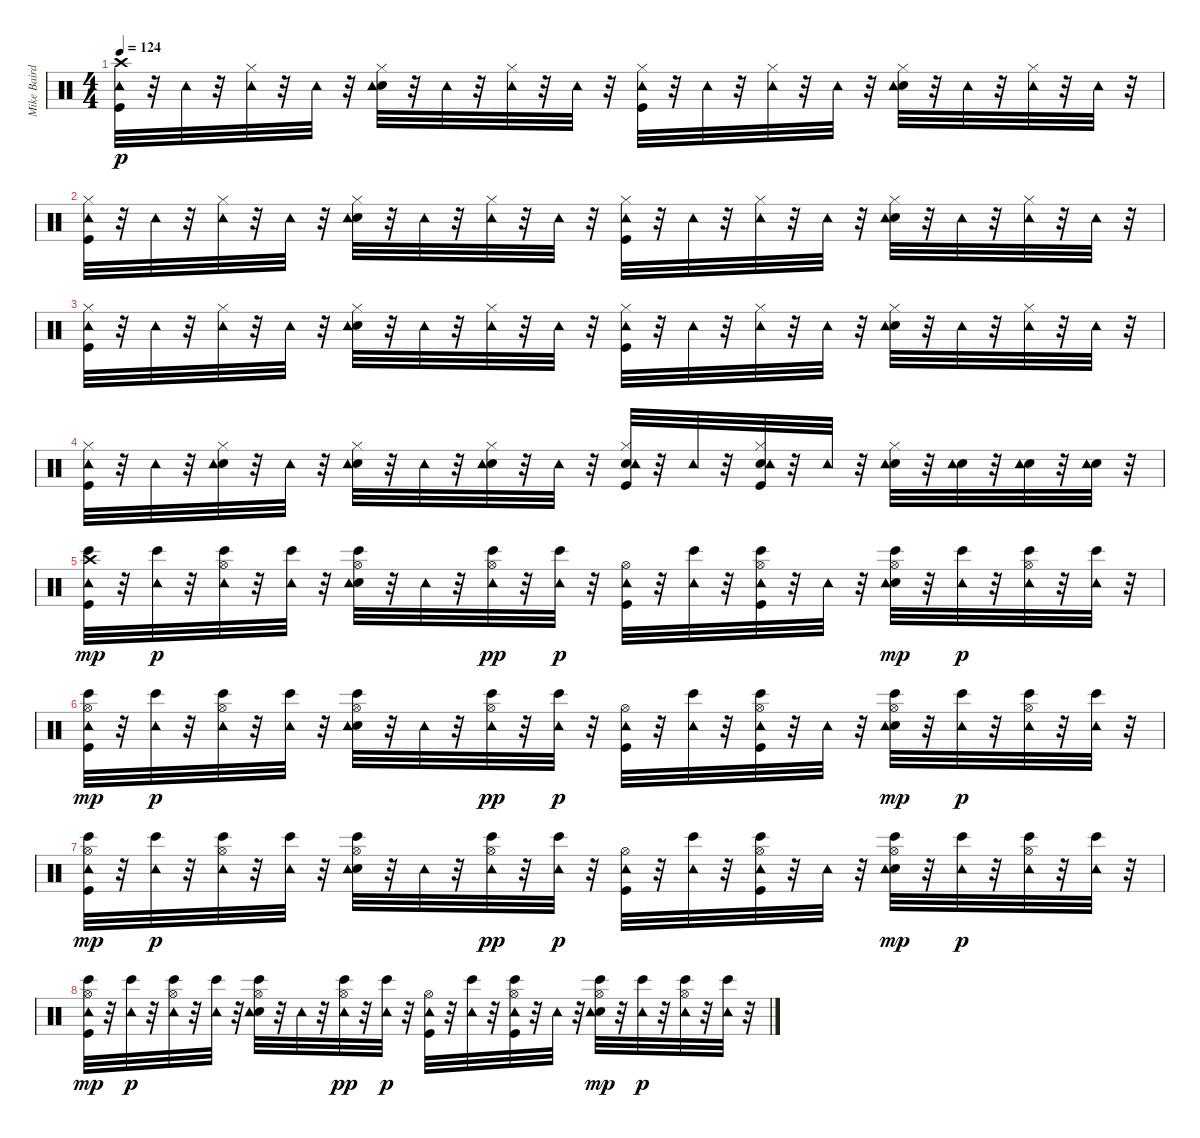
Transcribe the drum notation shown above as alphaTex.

\track ("Mike Baird [drums]" "Mike Baird") {instrument percussion}
\staff {score}
\articulation defaults
\ts (4 4)
\tempo 124
\clef neutral
\ks c
("Kick (hit)" "Crash high (hit)" "Tambourine (hit)").32{dy p} r.32 "Tambourine (hit)".32 r.32 ("Hi-Hat (closed)" "Tambourine (hit)").32 r.32 "Tambourine (hit)".32 r.32 ("Electric Snare (hit)" "Hi-Hat (closed)" "Tambourine (hit)").32 r.32 "Tambourine (hit)".32 r.32 ("Hi-Hat (closed)" "Tambourine (hit)").32 r.32 "Tambourine (hit)".32 r.32 ("Kick (hit)" "Hi-Hat (closed)" "Tambourine (hit)").32 r.32 "Tambourine (hit)".32 r.32 ("Hi-Hat (closed)" "Tambourine (hit)").32 r.32 "Tambourine (hit)".32 r.32 ("Electric Snare (hit)" "Hi-Hat (closed)" "Tambourine (hit)").32 r.32 "Tambourine (hit)".32 r.32 ("Hi-Hat (closed)" "Tambourine (hit)").32 r.32 "Tambourine (hit)".32 r.32 |
("Kick (hit)" "Hi-Hat (closed)" "Tambourine (hit)").32 r.32 "Tambourine (hit)".32 r.32 ("Hi-Hat (closed)" "Tambourine (hit)").32 r.32 "Tambourine (hit)".32 r.32 ("Electric Snare (hit)" "Hi-Hat (closed)" "Tambourine (hit)").32 r.32 "Tambourine (hit)".32 r.32 ("Hi-Hat (closed)" "Tambourine (hit)").32 r.32 "Tambourine (hit)".32 r.32 ("Kick (hit)" "Hi-Hat (closed)" "Tambourine (hit)").32 r.32 "Tambourine (hit)".32 r.32 ("Hi-Hat (closed)" "Tambourine (hit)").32 r.32 "Tambourine (hit)".32 r.32 ("Electric Snare (hit)" "Hi-Hat (closed)" "Tambourine (hit)").32 r.32 "Tambourine (hit)".32 r.32 ("Hi-Hat (closed)" "Tambourine (hit)").32 r.32 "Tambourine (hit)".32 r.32 |
("Kick (hit)" "Hi-Hat (closed)" "Tambourine (hit)").32 r.32 "Tambourine (hit)".32 r.32 ("Hi-Hat (closed)" "Tambourine (hit)").32 r.32 "Tambourine (hit)".32 r.32 ("Electric Snare (hit)" "Hi-Hat (closed)" "Tambourine (hit)").32 r.32 "Tambourine (hit)".32 r.32 ("Hi-Hat (closed)" "Tambourine (hit)").32 r.32 "Tambourine (hit)".32 r.32 ("Kick (hit)" "Hi-Hat (closed)" "Tambourine (hit)").32 r.32 "Tambourine (hit)".32 r.32 ("Hi-Hat (closed)" "Tambourine (hit)").32 r.32 "Tambourine (hit)".32 r.32 ("Electric Snare (hit)" "Hi-Hat (closed)" "Tambourine (hit)").32 r.32 "Tambourine (hit)".32 r.32 ("Hi-Hat (closed)" "Tambourine (hit)").32 r.32 "Tambourine (hit)".32 r.32 |
("Kick (hit)" "Hi-Hat (closed)" "Tambourine (hit)").32 r.32 "Tambourine (hit)".32 r.32 ("Electric Snare (hit)" "Hi-Hat (closed)" "Tambourine (hit)").32 r.32 "Tambourine (hit)".32 r.32 ("Electric Snare (hit)" "Hi-Hat (closed)" "Tambourine (hit)").32 r.32 "Tambourine (hit)".32 r.32 ("Electric Snare (hit)" "Hi-Hat (closed)" "Tambourine (hit)").32 r.32 "Tambourine (hit)".32 r.32 ("Kick (hit)" "Electric Snare (hit)" "Hi-Hat (closed)" "Tambourine (hit)").32 r.32 "Tambourine (hit)".32 r.32 ("Kick (hit)" "Electric Snare (hit)" "Hi-Hat (closed)" "Tambourine (hit)").32 r.32 "Tambourine (hit)".32 r.32 ("Electric Snare (hit)" "Hi-Hat (closed)" "Tambourine (hit)").32 r.32 ("Electric Snare (hit)" "Tambourine (hit)").32 r.32 ("Electric Snare (hit)" "Tambourine (hit)").32 r.32 ("Electric Snare (hit)" "Tambourine (hit)").32 r.32 |
("Bongo High (hit)" "Kick (hit)" "Crash high (hit)" "Tambourine (hit)").32{dy mp} r.32 ("Tambourine (hit)" "Bongo High (hit)").32{dy p} r.32 ("Hi-Hat (open)" "Tambourine (hit)" "Bongo High (hit)").32 r.32 ("Tambourine (hit)" "Bongo High (hit)").32 r.32 ("Electric Snare (hit)" "Hi-Hat (open)" "Bongo High (hit)" "Tambourine (hit)").32 r.32 "Tambourine (hit)".32 r.32 ("Hi-Hat (open)" "Tambourine (hit)" "Bongo High (hit)").32{dy pp} r.32 ("Bongo High (hit)" "Tambourine (hit)").32{dy p} r.32 ("Kick (hit)" "Hi-Hat (open)" "Tambourine (hit)").32 r.32 ("Bongo High (hit)" "Tambourine (hit)").32 r.32 ("Bongo High (hit)" "Kick (hit)" "Hi-Hat (open)" "Tambourine (hit)").32 r.32 "Tambourine (hit)".32 r.32 ("Bongo High (hit)" "Electric Snare (hit)" "Hi-Hat (open)" "Tambourine (hit)").32{dy mp} r.32 ("Tambourine (hit)" "Bongo High (hit)").32{dy p} r.32 ("Bongo High (hit)" "Hi-Hat (open)" "Tambourine (hit)").32 r.32 ("Tambourine (hit)" "Bongo High (hit)").32 r.32 |
("Bongo High (hit)" "Kick (hit)" "Hi-Hat (open)" "Tambourine (hit)").32{dy mp} r.32 ("Tambourine (hit)" "Bongo High (hit)").32{dy p} r.32 ("Hi-Hat (open)" "Tambourine (hit)" "Bongo High (hit)").32 r.32 ("Tambourine (hit)" "Bongo High (hit)").32 r.32 ("Electric Snare (hit)" "Hi-Hat (open)" "Bongo High (hit)" "Tambourine (hit)").32 r.32 "Tambourine (hit)".32 r.32 ("Hi-Hat (open)" "Tambourine (hit)" "Bongo High (hit)").32{dy pp} r.32 ("Bongo High (hit)" "Tambourine (hit)").32{dy p} r.32 ("Kick (hit)" "Hi-Hat (open)" "Tambourine (hit)").32 r.32 ("Bongo High (hit)" "Tambourine (hit)").32 r.32 ("Bongo High (hit)" "Kick (hit)" "Hi-Hat (open)" "Tambourine (hit)").32 r.32 "Tambourine (hit)".32 r.32 ("Bongo High (hit)" "Electric Snare (hit)" "Hi-Hat (open)" "Tambourine (hit)").32{dy mp} r.32 ("Tambourine (hit)" "Bongo High (hit)").32{dy p} r.32 ("Bongo High (hit)" "Hi-Hat (open)" "Tambourine (hit)").32 r.32 ("Tambourine (hit)" "Bongo High (hit)").32 r.32 |
("Bongo High (hit)" "Kick (hit)" "Hi-Hat (open)" "Tambourine (hit)").32{dy mp} r.32 ("Tambourine (hit)" "Bongo High (hit)").32{dy p} r.32 ("Hi-Hat (open)" "Tambourine (hit)" "Bongo High (hit)").32 r.32 ("Tambourine (hit)" "Bongo High (hit)").32 r.32 ("Electric Snare (hit)" "Hi-Hat (open)" "Bongo High (hit)" "Tambourine (hit)").32 r.32 "Tambourine (hit)".32 r.32 ("Hi-Hat (open)" "Tambourine (hit)" "Bongo High (hit)").32{dy pp} r.32 ("Bongo High (hit)" "Tambourine (hit)").32{dy p} r.32 ("Kick (hit)" "Hi-Hat (open)" "Tambourine (hit)").32 r.32 ("Bongo High (hit)" "Tambourine (hit)").32 r.32 ("Bongo High (hit)" "Kick (hit)" "Hi-Hat (open)" "Tambourine (hit)").32 r.32 "Tambourine (hit)".32 r.32 ("Bongo High (hit)" "Electric Snare (hit)" "Hi-Hat (open)" "Tambourine (hit)").32{dy mp} r.32 ("Tambourine (hit)" "Bongo High (hit)").32{dy p} r.32 ("Bongo High (hit)" "Hi-Hat (open)" "Tambourine (hit)").32 r.32 ("Tambourine (hit)" "Bongo High (hit)").32 r.32 |
("Bongo High (hit)" "Kick (hit)" "Hi-Hat (open)" "Tambourine (hit)").32{dy mp} r.32 ("Tambourine (hit)" "Bongo High (hit)").32{dy p} r.32 ("Hi-Hat (open)" "Tambourine (hit)" "Bongo High (hit)").32 r.32 ("Tambourine (hit)" "Bongo High (hit)").32 r.32 ("Electric Snare (hit)" "Hi-Hat (open)" "Bongo High (hit)" "Tambourine (hit)").32 r.32 "Tambourine (hit)".32 r.32 ("Hi-Hat (open)" "Tambourine (hit)" "Bongo High (hit)").32{dy pp} r.32 ("Bongo High (hit)" "Tambourine (hit)").32{dy p} r.32 ("Kick (hit)" "Hi-Hat (open)" "Tambourine (hit)").32 r.32 ("Bongo High (hit)" "Tambourine (hit)").32 r.32 ("Bongo High (hit)" "Kick (hit)" "Hi-Hat (open)" "Tambourine (hit)").32 r.32 "Tambourine (hit)".32 r.32 ("Bongo High (hit)" "Electric Snare (hit)" "Hi-Hat (open)" "Tambourine (hit)").32{dy mp} r.32 ("Tambourine (hit)" "Bongo High (hit)").32{dy p} r.32 ("Bongo High (hit)" "Hi-Hat (open)" "Tambourine (hit)").32 r.32 ("Tambourine (hit)" "Bongo High (hit)").32 r.32
